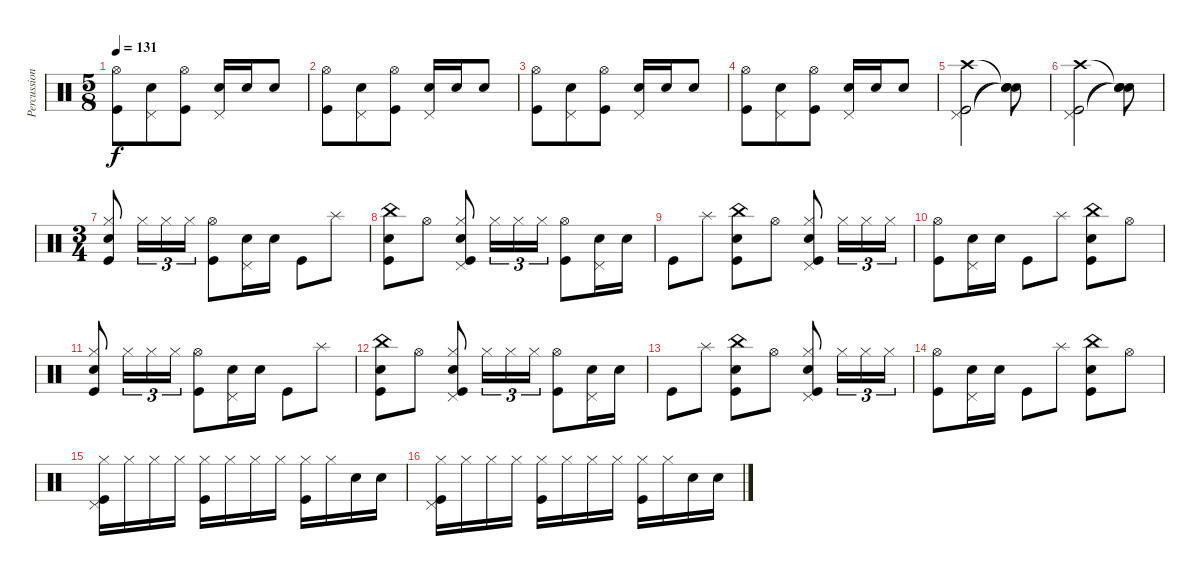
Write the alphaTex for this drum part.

\track ("Percussion" "Percussion") {instrument percussion}
\staff {score}
\articulation defaults
\ts (5 8)
\tempo 131
\clef neutral
\ks c
("Kick (hit)" "Hi-Hat (open)").8{dy f} ("Snare (hit) 2" "Pedal Hi-Hat (hit)").8 ("Kick (hit)" "Hi-Hat (open)").8 ("Snare (hit) 2" "Pedal Hi-Hat (hit)").16 "Snare (hit) 2".16 "Snare (hit) 2".8 |
("Kick (hit)" "Hi-Hat (open)").8 ("Snare (hit) 2" "Pedal Hi-Hat (hit)").8 ("Kick (hit)" "Hi-Hat (open)").8 ("Snare (hit) 2" "Pedal Hi-Hat (hit)").16 "Snare (hit) 2".16 "Snare (hit) 2".8 |
("Kick (hit)" "Hi-Hat (open)").8 ("Snare (hit) 2" "Pedal Hi-Hat (hit)").8 ("Kick (hit)" "Hi-Hat (open)").8 ("Snare (hit) 2" "Pedal Hi-Hat (hit)").16 "Snare (hit) 2".16 "Snare (hit) 2".8 |
("Kick (hit)" "Hi-Hat (open)").8 ("Snare (hit) 2" "Pedal Hi-Hat (hit)").8 ("Kick (hit)" "Hi-Hat (open)").8 ("Snare (hit) 2" "Pedal Hi-Hat (hit)").16 "Snare (hit) 2".16 "Snare (hit) 2".8 |
("Pedal Hi-Hat (hit)" "Crash high (hit)" "Kick (hit)").2 ("Snare (hit)"{t} "Snare (hit)"{t} "Snare (hit)"{t}).8 |
("Pedal Hi-Hat (hit)" "Crash high (hit)" "Kick (hit)").2 ("Snare (hit)"{t} "Snare (hit)"{t} "Snare (hit)"{t}).8 |
\ts (3 4)
("Hi-Hat (closed)" "Electric Snare (hit)" "Kick (hit)").8 "Hi-Hat (closed)".16{tu (3 2)} "Hi-Hat (closed)".16{tu (3 2)} "Hi-Hat (closed)".16{tu (3 2)} ("Kick (hit)" "Hi-Hat (open)").8 ("Snare (hit) 2" "Pedal Hi-Hat (hit)").16 "Snare (hit) 2".16 "Kick (hit)".8 "Splash (hit)".8 |
("Electric Snare (hit)" "Kick (hit)" "China (hit)").8 "Hi-Hat (open)".8 ("Pedal Hi-Hat (hit)" "Hi-Hat (closed)" "Electric Snare (hit)" "Kick (hit)").8 "Hi-Hat (closed)".16{tu (3 2)} "Hi-Hat (closed)".16{tu (3 2)} "Hi-Hat (closed)".16{tu (3 2)} ("Kick (hit)" "Hi-Hat (open)").8 ("Snare (hit) 2" "Pedal Hi-Hat (hit)").16 "Snare (hit) 2".16 |
"Kick (hit)".8 "Splash (hit)".8 ("Electric Snare (hit)" "Kick (hit)" "China (hit)").8 "Hi-Hat (open)".8 ("Pedal Hi-Hat (hit)" "Hi-Hat (closed)" "Electric Snare (hit)" "Kick (hit)").8 "Hi-Hat (closed)".16{tu (3 2)} "Hi-Hat (closed)".16{tu (3 2)} "Hi-Hat (closed)".16{tu (3 2)} |
("Kick (hit)" "Hi-Hat (open)").8 ("Snare (hit) 2" "Pedal Hi-Hat (hit)").16 "Snare (hit) 2".16 "Kick (hit)".8 "Splash (hit)".8 ("Electric Snare (hit)" "Kick (hit)" "China (hit)").8 "Hi-Hat (open)".8 |
("Hi-Hat (closed)" "Electric Snare (hit)" "Kick (hit)").8 "Hi-Hat (closed)".16{tu (3 2)} "Hi-Hat (closed)".16{tu (3 2)} "Hi-Hat (closed)".16{tu (3 2)} ("Kick (hit)" "Hi-Hat (open)").8 ("Snare (hit) 2" "Pedal Hi-Hat (hit)").16 "Snare (hit) 2".16 "Kick (hit)".8 "Splash (hit)".8 |
("Electric Snare (hit)" "Kick (hit)" "China (hit)").8 "Hi-Hat (open)".8 ("Pedal Hi-Hat (hit)" "Hi-Hat (closed)" "Electric Snare (hit)" "Kick (hit)").8 "Hi-Hat (closed)".16{tu (3 2)} "Hi-Hat (closed)".16{tu (3 2)} "Hi-Hat (closed)".16{tu (3 2)} ("Kick (hit)" "Hi-Hat (open)").8 ("Snare (hit) 2" "Pedal Hi-Hat (hit)").16 "Snare (hit) 2".16 |
"Kick (hit)".8 "Splash (hit)".8 ("Electric Snare (hit)" "Kick (hit)" "China (hit)").8 "Hi-Hat (open)".8 ("Pedal Hi-Hat (hit)" "Hi-Hat (closed)" "Electric Snare (hit)" "Kick (hit)").8 "Hi-Hat (closed)".16{tu (3 2)} "Hi-Hat (closed)".16{tu (3 2)} "Hi-Hat (closed)".16{tu (3 2)} |
("Kick (hit)" "Hi-Hat (open)").8 ("Snare (hit) 2" "Pedal Hi-Hat (hit)").16 "Snare (hit) 2".16 "Kick (hit)".8 "Splash (hit)".8 ("Electric Snare (hit)" "Kick (hit)" "China (hit)").8 "Hi-Hat (open)".8 |
("Hi-Hat (closed)" "Kick (hit)" "Pedal Hi-Hat (hit)").16 "Hi-Hat (closed)".16 "Hi-Hat (closed)".16 "Hi-Hat (closed)".16 ("Hi-Hat (closed)" "Kick (hit)").16 "Hi-Hat (closed)".16 "Hi-Hat (closed)".16 "Hi-Hat (closed)".16 ("Hi-Hat (closed)" "Kick (hit)").16 "Hi-Hat (closed)".16 "Snare (hit) 2".16 "Snare (hit) 2".16 |
("Hi-Hat (closed)" "Kick (hit)" "Pedal Hi-Hat (hit)").16 "Hi-Hat (closed)".16 "Hi-Hat (closed)".16 "Hi-Hat (closed)".16 ("Hi-Hat (closed)" "Kick (hit)").16 "Hi-Hat (closed)".16 "Hi-Hat (closed)".16 "Hi-Hat (closed)".16 ("Hi-Hat (closed)" "Kick (hit)").16 "Hi-Hat (closed)".16 "Snare (hit) 2".16 "Snare (hit) 2".16
